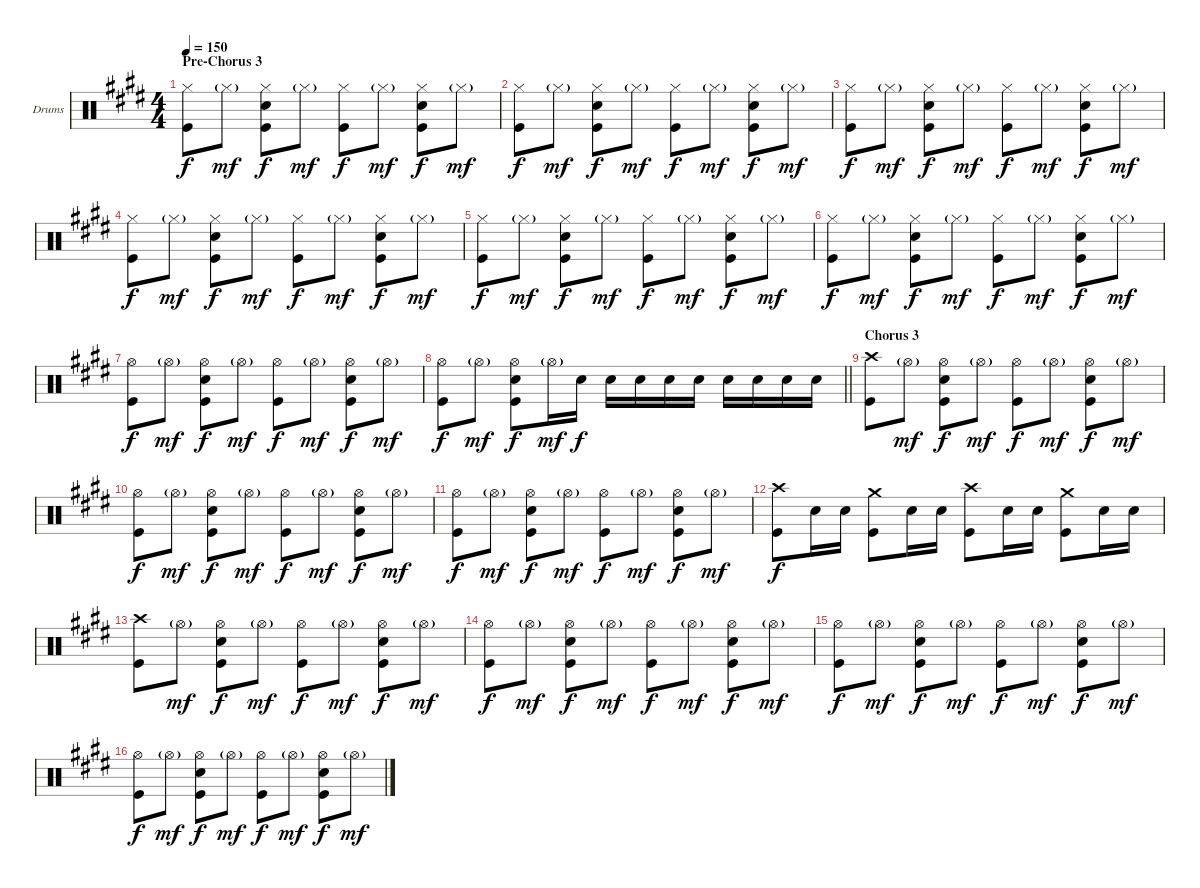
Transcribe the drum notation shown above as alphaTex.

\bracketExtendMode groupsimilarinstruments
\firstSystemTrackNameOrientation horizontal
\otherSystemsTrackNameOrientation horizontal
\track ("Drumkit" "Drums") {instrument percussion}
\staff {score}
\articulation defaults
\ts (4 4)
\section ("" "Pre-Chorus 3")
\tempo 150
\clef neutral
\ks e
("Hi-Hat (closed)" "Kick (hit)").8{dy f} "Hi-Hat (closed)"{g}.8{dy mf} ("Hi-Hat (closed)" "Snare (hit) 2" "Kick (hit)").8{dy f} "Hi-Hat (closed)"{g}.8{dy mf} ("Hi-Hat (closed)" "Kick (hit)").8{dy f} "Hi-Hat (closed)"{g}.8{dy mf} ("Hi-Hat (closed)" "Snare (hit) 2" "Kick (hit)").8{dy f} "Hi-Hat (closed)"{g}.8{dy mf} |
("Hi-Hat (closed)" "Kick (hit)").8{dy f} "Hi-Hat (closed)"{g}.8{dy mf} ("Hi-Hat (closed)" "Snare (hit) 2" "Kick (hit)").8{dy f} "Hi-Hat (closed)"{g}.8{dy mf} ("Hi-Hat (closed)" "Kick (hit)").8{dy f} "Hi-Hat (closed)"{g}.8{dy mf} ("Hi-Hat (closed)" "Snare (hit) 2" "Kick (hit)").8{dy f} "Hi-Hat (closed)"{g}.8{dy mf} |
("Hi-Hat (closed)" "Kick (hit)").8{dy f} "Hi-Hat (closed)"{g}.8{dy mf} ("Hi-Hat (closed)" "Snare (hit) 2" "Kick (hit)").8{dy f} "Hi-Hat (closed)"{g}.8{dy mf} ("Hi-Hat (closed)" "Kick (hit)").8{dy f} "Hi-Hat (closed)"{g}.8{dy mf} ("Hi-Hat (closed)" "Snare (hit) 2" "Kick (hit)").8{dy f} "Hi-Hat (closed)"{g}.8{dy mf} |
("Hi-Hat (closed)" "Kick (hit)").8{dy f} "Hi-Hat (closed)"{g}.8{dy mf} ("Hi-Hat (closed)" "Snare (hit) 2" "Kick (hit)").8{dy f} "Hi-Hat (closed)"{g}.8{dy mf} ("Hi-Hat (closed)" "Kick (hit)").8{dy f} "Hi-Hat (closed)"{g}.8{dy mf} ("Hi-Hat (closed)" "Snare (hit) 2" "Kick (hit)").8{dy f} "Hi-Hat (closed)"{g}.8{dy mf} |
("Hi-Hat (closed)" "Kick (hit)").8{dy f} "Hi-Hat (closed)"{g}.8{dy mf} ("Hi-Hat (closed)" "Snare (hit) 2" "Kick (hit)").8{dy f} "Hi-Hat (closed)"{g}.8{dy mf} ("Hi-Hat (closed)" "Kick (hit)").8{dy f} "Hi-Hat (closed)"{g}.8{dy mf} ("Hi-Hat (closed)" "Snare (hit) 2" "Kick (hit)").8{dy f} "Hi-Hat (closed)"{g}.8{dy mf} |
("Hi-Hat (closed)" "Kick (hit)").8{dy f} "Hi-Hat (closed)"{g}.8{dy mf} ("Hi-Hat (closed)" "Snare (hit) 2" "Kick (hit)").8{dy f} "Hi-Hat (closed)"{g}.8{dy mf} ("Hi-Hat (closed)" "Kick (hit)").8{dy f} "Hi-Hat (closed)"{g}.8{dy mf} ("Hi-Hat (closed)" "Snare (hit) 2" "Kick (hit)").8{dy f} "Hi-Hat (closed)"{g}.8{dy mf} |
("Hi-Hat (open)" "Kick (hit)").8{dy f} "Hi-Hat (open)"{g}.8{dy mf} ("Hi-Hat (open)" "Snare (hit) 2" "Kick (hit)").8{dy f} "Hi-Hat (open)"{g}.8{dy mf} ("Hi-Hat (open)" "Kick (hit)").8{dy f} "Hi-Hat (open)"{g}.8{dy mf} ("Hi-Hat (open)" "Snare (hit) 2" "Kick (hit)").8{dy f} "Hi-Hat (open)"{g}.8{dy mf} |
\barLineRight lightlight
("Hi-Hat (open)" "Kick (hit)").8{dy f} "Hi-Hat (open)"{g}.8{dy mf} ("Hi-Hat (open)" "Snare (hit) 2" "Kick (hit)").8{dy f} "Hi-Hat (open)"{g}.16{dy mf} "Snare (hit) 2".16{dy f} "Snare (hit) 2".16 "Snare (hit) 2".16 "Snare (hit) 2".16 "Snare (hit) 2".16 "Snare (hit) 2".16 "Snare (hit) 2".16 "Snare (hit) 2".16 "Snare (hit) 2".16 |
\section ("" "Chorus 3")
("Crash high (hit)" "Kick (hit)").8 "Hi-Hat (open)"{g}.8{dy mf} ("Hi-Hat (open)" "Snare (hit) 2" "Kick (hit)").8{dy f} "Hi-Hat (open)"{g}.8{dy mf} ("Hi-Hat (open)" "Kick (hit)").8{dy f} "Hi-Hat (open)"{g}.8{dy mf} ("Hi-Hat (open)" "Snare (hit) 2" "Kick (hit)").8{dy f} "Hi-Hat (open)"{g}.8{dy mf} |
("Hi-Hat (open)" "Kick (hit)").8{dy f} "Hi-Hat (open)"{g}.8{dy mf} ("Hi-Hat (open)" "Snare (hit) 2" "Kick (hit)").8{dy f} "Hi-Hat (open)"{g}.8{dy mf} ("Hi-Hat (open)" "Kick (hit)").8{dy f} "Hi-Hat (open)"{g}.8{dy mf} ("Hi-Hat (open)" "Snare (hit) 2" "Kick (hit)").8{dy f} "Hi-Hat (open)"{g}.8{dy mf} |
("Hi-Hat (open)" "Kick (hit)").8{dy f} "Hi-Hat (open)"{g}.8{dy mf} ("Hi-Hat (open)" "Snare (hit) 2" "Kick (hit)").8{dy f} "Hi-Hat (open)"{g}.8{dy mf} ("Hi-Hat (open)" "Kick (hit)").8{dy f} "Hi-Hat (open)"{g}.8{dy mf} ("Hi-Hat (open)" "Snare (hit) 2" "Kick (hit)").8{dy f} "Hi-Hat (open)"{g}.8{dy mf} |
("Crash high (hit)" "Kick (hit)").8{dy f} "Snare (hit) 2".16 "Snare (hit) 2".16 ("Crash medium (hit)" "Kick (hit)").8 "Snare (hit) 2".16 "Snare (hit) 2".16 ("Crash high (hit)" "Kick (hit)").8 "Snare (hit) 2".16 "Snare (hit) 2".16 ("Crash medium (hit)" "Kick (hit)").8 "Snare (hit) 2".16 "Snare (hit) 2".16 |
("Crash high (hit)" "Kick (hit)").8 "Hi-Hat (open)"{g}.8{dy mf} ("Hi-Hat (open)" "Snare (hit) 2" "Kick (hit)").8{dy f} "Hi-Hat (open)"{g}.8{dy mf} ("Hi-Hat (open)" "Kick (hit)").8{dy f} "Hi-Hat (open)"{g}.8{dy mf} ("Hi-Hat (open)" "Snare (hit) 2" "Kick (hit)").8{dy f} "Hi-Hat (open)"{g}.8{dy mf} |
("Hi-Hat (open)" "Kick (hit)").8{dy f} "Hi-Hat (open)"{g}.8{dy mf} ("Hi-Hat (open)" "Snare (hit) 2" "Kick (hit)").8{dy f} "Hi-Hat (open)"{g}.8{dy mf} ("Hi-Hat (open)" "Kick (hit)").8{dy f} "Hi-Hat (open)"{g}.8{dy mf} ("Hi-Hat (open)" "Snare (hit) 2" "Kick (hit)").8{dy f} "Hi-Hat (open)"{g}.8{dy mf} |
("Hi-Hat (open)" "Kick (hit)").8{dy f} "Hi-Hat (open)"{g}.8{dy mf} ("Hi-Hat (open)" "Snare (hit) 2" "Kick (hit)").8{dy f} "Hi-Hat (open)"{g}.8{dy mf} ("Hi-Hat (open)" "Kick (hit)").8{dy f} "Hi-Hat (open)"{g}.8{dy mf} ("Hi-Hat (open)" "Snare (hit) 2" "Kick (hit)").8{dy f} "Hi-Hat (open)"{g}.8{dy mf} |
("Hi-Hat (open)" "Kick (hit)").8{dy f} "Hi-Hat (open)"{g}.8{dy mf} ("Hi-Hat (open)" "Snare (hit) 2" "Kick (hit)").8{dy f} "Hi-Hat (open)"{g}.8{dy mf} ("Hi-Hat (open)" "Kick (hit)").8{dy f} "Hi-Hat (open)"{g}.8{dy mf} ("Hi-Hat (open)" "Snare (hit) 2" "Kick (hit)").8{dy f} "Hi-Hat (open)"{g}.8{dy mf}
